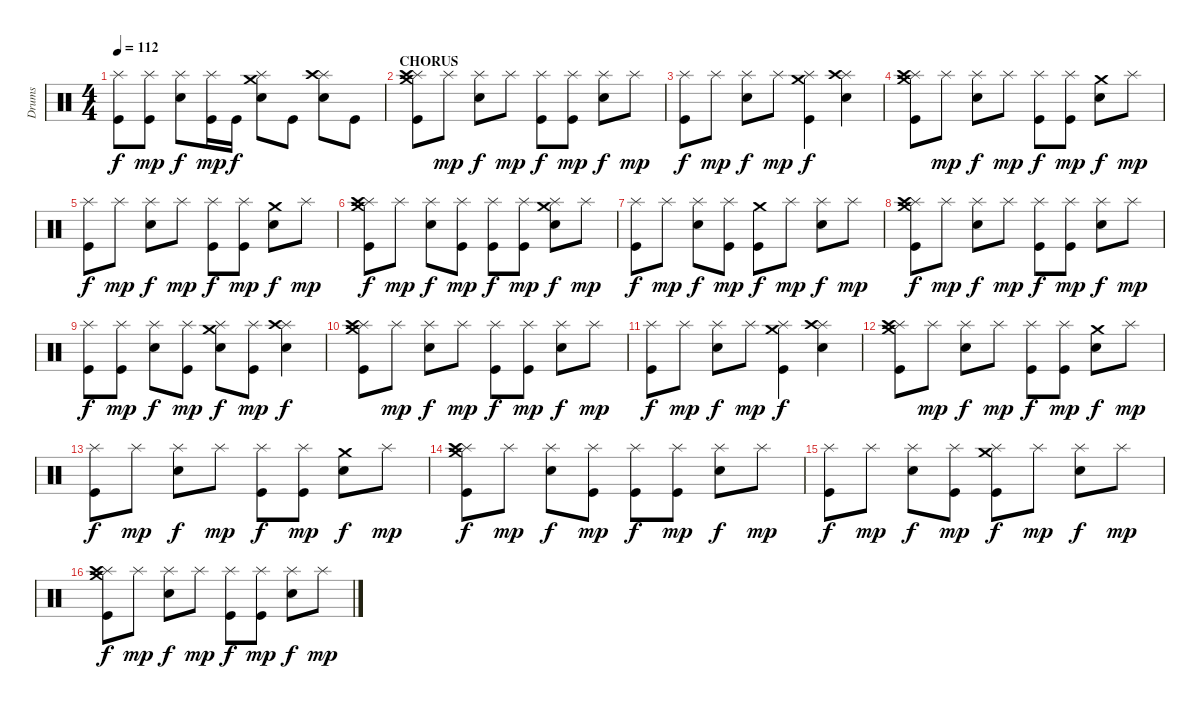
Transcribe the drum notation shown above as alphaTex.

\track ("Drums" "Drums") {instrument percussion}
\staff {score}
\articulation defaults
\ts (4 4)
\tempo 112
\clef neutral
\ks c
("Splash (hit)" "Kick (hit)").8{dy f} ("Splash (hit)" "Kick (hit)").8{dy mp} ("Splash (hit)" "Electric Snare (hit)").8{dy f} ("Splash (hit)" "Kick (hit)").16{dy mp} "Kick (hit)".16{dy f} ("Crash medium (hit)" "Splash (hit)" "Electric Snare (hit)").8 "Kick (hit)".8 ("Splash (hit)" "Crash high (hit)" "Electric Snare (hit)").8 "Kick (hit)".8 |
\section ("" "CHORUS")
("Crash medium (hit)" "Splash (hit)" "Crash high (hit)" "Kick (hit)").8 "Splash (hit)".8{dy mp} ("Splash (hit)" "Electric Snare (hit)").8{dy f} "Splash (hit)".8{dy mp} ("Splash (hit)" "Kick (hit)").8{dy f} ("Splash (hit)" "Kick (hit)").8{dy mp} ("Splash (hit)" "Electric Snare (hit)").8{dy f} "Splash (hit)".8{dy mp} |
("Splash (hit)" "Kick (hit)").8{dy f} "Splash (hit)".8{dy mp} ("Splash (hit)" "Electric Snare (hit)").8{dy f} "Splash (hit)".8{dy mp} ("Crash medium (hit)" "Splash (hit)" "Kick (hit)").4{dy f} ("Splash (hit)" "Crash high (hit)" "Electric Snare (hit)").4 |
("Crash medium (hit)" "Splash (hit)" "Crash high (hit)" "Kick (hit)").8 "Splash (hit)".8{dy mp} ("Splash (hit)" "Electric Snare (hit)").8{dy f} "Splash (hit)".8{dy mp} ("Splash (hit)" "Kick (hit)").8{dy f} ("Splash (hit)" "Kick (hit)").8{dy mp} ("Crash medium (hit)" "Electric Snare (hit)").8{dy f} "Splash (hit)".8{dy mp} |
("Splash (hit)" "Kick (hit)").8{dy f} "Splash (hit)".8{dy mp} ("Splash (hit)" "Electric Snare (hit)").8{dy f} "Splash (hit)".8{dy mp} ("Splash (hit)" "Kick (hit)").8{dy f} ("Splash (hit)" "Kick (hit)").8{dy mp} ("Crash medium (hit)" "Electric Snare (hit)").8{dy f} "Splash (hit)".8{dy mp} |
("Crash medium (hit)" "Splash (hit)" "Crash high (hit)" "Kick (hit)").8{dy f} "Splash (hit)".8{dy mp} ("Splash (hit)" "Electric Snare (hit)").8{dy f} ("Splash (hit)" "Kick (hit)").8{dy mp} ("Splash (hit)" "Kick (hit)").8{dy f} ("Splash (hit)" "Kick (hit)").8{dy mp} ("Crash medium (hit)" "Splash (hit)" "Electric Snare (hit)").8{dy f} "Splash (hit)".8{dy mp} |
("Splash (hit)" "Kick (hit)").8{dy f} "Splash (hit)".8{dy mp} ("Splash (hit)" "Electric Snare (hit)").8{dy f} ("Splash (hit)" "Kick (hit)").8{dy mp} ("Crash medium (hit)" "Kick (hit)").8{dy f} "Splash (hit)".8{dy mp} ("Splash (hit)" "Electric Snare (hit)").8{dy f} "Splash (hit)".8{dy mp} |
("Crash medium (hit)" "Splash (hit)" "Crash high (hit)" "Kick (hit)").8{dy f} "Splash (hit)".8{dy mp} ("Splash (hit)" "Electric Snare (hit)").8{dy f} "Splash (hit)".8{dy mp} ("Splash (hit)" "Kick (hit)").8{dy f} ("Splash (hit)" "Kick (hit)").8{dy mp} ("Splash (hit)" "Electric Snare (hit)").8{dy f} "Splash (hit)".8{dy mp} |
("Splash (hit)" "Kick (hit)").8{dy f} ("Splash (hit)" "Kick (hit)").8{dy mp} ("Splash (hit)" "Electric Snare (hit)").8{dy f} ("Splash (hit)" "Kick (hit)").8{dy mp} ("Crash medium (hit)" "Splash (hit)" "Electric Snare (hit)").8{dy f} ("Splash (hit)" "Kick (hit)").8{dy mp} ("Splash (hit)" "Crash high (hit)" "Electric Snare (hit)").4{dy f} |
("Crash medium (hit)" "Splash (hit)" "Crash high (hit)" "Kick (hit)").8 "Splash (hit)".8{dy mp} ("Splash (hit)" "Electric Snare (hit)").8{dy f} "Splash (hit)".8{dy mp} ("Splash (hit)" "Kick (hit)").8{dy f} ("Splash (hit)" "Kick (hit)").8{dy mp} ("Splash (hit)" "Electric Snare (hit)").8{dy f} "Splash (hit)".8{dy mp} |
("Splash (hit)" "Kick (hit)").8{dy f} "Splash (hit)".8{dy mp} ("Splash (hit)" "Electric Snare (hit)").8{dy f} "Splash (hit)".8{dy mp volume 15} ("Crash medium (hit)" "Splash (hit)" "Kick (hit)").4{dy f} ("Splash (hit)" "Crash high (hit)" "Electric Snare (hit)").4 |
("Crash medium (hit)" "Splash (hit)" "Crash high (hit)" "Kick (hit)").8 "Splash (hit)".8{dy mp} ("Splash (hit)" "Electric Snare (hit)").8{dy f} "Splash (hit)".8{dy mp} ("Splash (hit)" "Kick (hit)").8{dy f} ("Splash (hit)" "Kick (hit)").8{dy mp} ("Crash medium (hit)" "Electric Snare (hit)").8{dy f} "Splash (hit)".8{dy mp} |
("Splash (hit)" "Kick (hit)").8{dy f volume 14} "Splash (hit)".8{dy mp} ("Splash (hit)" "Electric Snare (hit)").8{dy f} "Splash (hit)".8{dy mp} ("Splash (hit)" "Kick (hit)").8{dy f} ("Splash (hit)" "Kick (hit)").8{dy mp} ("Crash medium (hit)" "Electric Snare (hit)").8{dy f} "Splash (hit)".8{dy mp} |
("Crash medium (hit)" "Splash (hit)" "Crash high (hit)" "Kick (hit)").8{dy f} "Splash (hit)".8{dy mp} ("Splash (hit)" "Electric Snare (hit)").8{dy f} ("Splash (hit)" "Kick (hit)").8{dy mp} ("Splash (hit)" "Kick (hit)").8{dy f volume 13} ("Splash (hit)" "Kick (hit)").8{dy mp} ("Splash (hit)" "Electric Snare (hit)").8{dy f} "Splash (hit)".8{dy mp} |
("Splash (hit)" "Kick (hit)").8{dy f} "Splash (hit)".8{dy mp} ("Splash (hit)" "Electric Snare (hit)").8{dy f} ("Splash (hit)" "Kick (hit)").8{dy mp} ("Crash medium (hit)" "Splash (hit)" "Kick (hit)").8{dy f} "Splash (hit)".8{dy mp} ("Splash (hit)" "Electric Snare (hit)").8{dy f} "Splash (hit)".8{dy mp} |
("Crash medium (hit)" "Splash (hit)" "Crash high (hit)" "Kick (hit)").8{dy f volume 12} "Splash (hit)".8{dy mp} ("Splash (hit)" "Electric Snare (hit)").8{dy f} "Splash (hit)".8{dy mp} ("Splash (hit)" "Kick (hit)").8{dy f} ("Splash (hit)" "Kick (hit)").8{dy mp} ("Splash (hit)" "Electric Snare (hit)").8{dy f} "Splash (hit)".8{dy mp}
